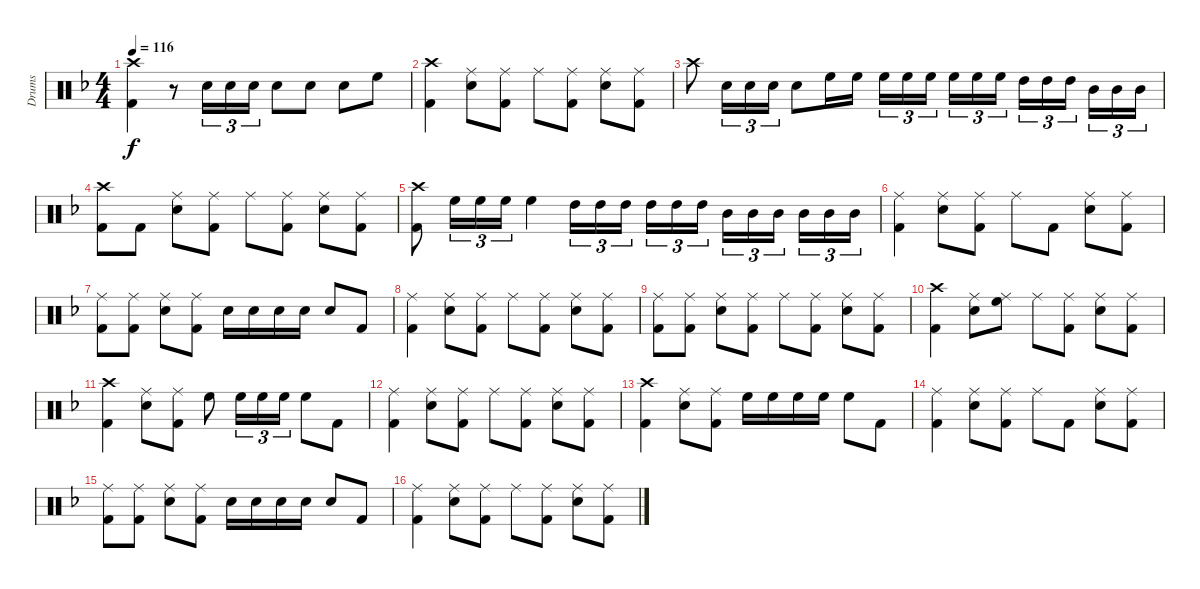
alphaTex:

\track ("Drums" "Drums") {instrument percussion}
\staff {score}
\articulation defaults
\ts (4 4)
\tempo 116
\clef neutral
\ks dminor
("Crash high (hit)" "Kick (hit) 2").4{dy f} r.8 "Electric Snare (hit)".16{tu (3 2)} "Electric Snare (hit)".16{tu (3 2)} "Electric Snare (hit)".16{tu (3 2)} "Electric Snare (hit)".8 "Electric Snare (hit)".8 "Electric Snare (hit)".8 "High Floor Tom (hit)".8 |
("Crash high (hit)" "Kick (hit) 2").4 ("Ride (middle)" "Electric Snare (hit)").8 ("Ride (middle)" "Kick (hit) 2").8 "Ride (middle)".8 ("Ride (middle)" "Kick (hit) 2").8 ("Ride (middle)" "Electric Snare (hit)").8 ("Ride (middle)" "Kick (hit) 2").8 |
"Crash high (hit)".8 "Electric Snare (hit)".16{tu (3 2)} "Electric Snare (hit)".16{tu (3 2)} "Electric Snare (hit)".16{tu (3 2)} "Electric Snare (hit)".8 "High Floor Tom (hit)".16 "High Floor Tom (hit)".16 "High Floor Tom (hit)".16{tu (3 2)} "High Floor Tom (hit)".16{tu (3 2)} "High Floor Tom (hit)".16{tu (3 2)} "High Floor Tom (hit)".16{tu (3 2)} "High Floor Tom (hit)".16{tu (3 2)} "High Floor Tom (hit)".16{tu (3 2)} "High Tom (hit)".16{tu (3 2)} "High Tom (hit)".16{tu (3 2)} "High Tom (hit)".16{tu (3 2)} "Mid Tom (hit)".16{tu (3 2)} "Mid Tom (hit)".16{tu (3 2)} "Mid Tom (hit)".16{tu (3 2)} |
("Crash high (hit)" "Kick (hit) 2").8 "Kick (hit) 2".8 ("Ride (middle)" "Electric Snare (hit)").8 ("Ride (middle)" "Kick (hit) 2").8 "Ride (middle)".8 ("Ride (middle)" "Kick (hit) 2").8 ("Ride (middle)" "Electric Snare (hit)").8 ("Ride (middle)" "Kick (hit) 2").8 |
("Crash high (hit)" "Kick (hit) 2").8 "High Floor Tom (hit)".16{tu (3 2)} "High Floor Tom (hit)".16{tu (3 2)} "High Floor Tom (hit)".16{tu (3 2)} "High Floor Tom (hit)".4 "High Tom (hit)".16{tu (3 2)} "High Tom (hit)".16{tu (3 2)} "High Tom (hit)".16{tu (3 2)} "High Tom (hit)".16{tu (3 2)} "High Tom (hit)".16{tu (3 2)} "High Tom (hit)".16{tu (3 2)} "Mid Tom (hit)".16{tu (3 2)} "Mid Tom (hit)".16{tu (3 2)} "Mid Tom (hit)".16{tu (3 2)} "Mid Tom (hit)".16{tu (3 2)} "Mid Tom (hit)".16{tu (3 2)} "Mid Tom (hit)".16{tu (3 2)} |
("Ride (middle)" "Kick (hit) 2").4 ("Ride (middle)" "Electric Snare (hit)").8 ("Ride (middle)" "Kick (hit) 2").8 "Ride (middle)".8 "Kick (hit) 2".8 ("Ride (middle)" "Electric Snare (hit)").8 ("Ride (middle)" "Kick (hit) 2").8 |
("Ride (middle)" "Kick (hit) 2").8 ("Ride (middle)" "Kick (hit) 2").8 ("Ride (middle)" "Electric Snare (hit)").8 ("Ride (middle)" "Kick (hit) 2").8 "Electric Snare (hit)".16 "Electric Snare (hit)".16 "Electric Snare (hit)".16 "Electric Snare (hit)".16 "Electric Snare (hit)".8 "Kick (hit) 2".8 |
("Ride (middle)" "Kick (hit) 2").4 ("Ride (middle)" "Electric Snare (hit)").8 ("Ride (middle)" "Kick (hit) 2").8 "Ride (middle)".8 ("Ride (middle)" "Kick (hit) 2").8 ("Ride (middle)" "Electric Snare (hit)").8 ("Ride (middle)" "Kick (hit) 2").8 |
("Ride (middle)" "Kick (hit) 2").8 ("Ride (middle)" "Kick (hit) 2").8 ("Ride (middle)" "Electric Snare (hit)").8 ("Ride (middle)" "Kick (hit) 2").8 "Ride (middle)".8 ("Ride (middle)" "Kick (hit) 2").8 ("Ride (middle)" "Electric Snare (hit)").8 ("Ride (middle)" "Kick (hit) 2").8 |
("Crash high (hit)" "Kick (hit) 2").4 ("Ride (middle)" "Electric Snare (hit)").8 ("Ride (middle)" "High Floor Tom (hit)").8 "Ride (middle)".8 ("Ride (middle)" "Kick (hit) 2").8 ("Ride (middle)" "Electric Snare (hit)").8 ("Ride (middle)" "Kick (hit) 2").8 |
("Crash high (hit)" "Kick (hit) 2").4 ("Ride (middle)" "Electric Snare (hit)").8 ("Ride (middle)" "Kick (hit) 2").8 "High Floor Tom (hit)".8 "High Floor Tom (hit)".16{tu (3 2)} "High Floor Tom (hit)".16{tu (3 2)} "High Floor Tom (hit)".16{tu (3 2)} "High Floor Tom (hit)".8 "Kick (hit) 2".8 |
("Ride (middle)" "Kick (hit) 2").4 ("Ride (middle)" "Electric Snare (hit)").8 ("Ride (middle)" "Kick (hit) 2").8 "Ride (middle)".8 ("Ride (middle)" "Kick (hit) 2").8 ("Ride (middle)" "Electric Snare (hit)").8 ("Ride (middle)" "Kick (hit) 2").8 |
("Crash high (hit)" "Kick (hit) 2").4 ("Ride (middle)" "Electric Snare (hit)").8 ("Ride (middle)" "Kick (hit) 2").8 "High Floor Tom (hit)".16 "High Floor Tom (hit)".16 "High Floor Tom (hit)".16 "High Floor Tom (hit)".16 "High Floor Tom (hit)".8 "Kick (hit) 2".8 |
("Ride (middle)" "Kick (hit) 2").4 ("Ride (middle)" "Electric Snare (hit)").8 ("Ride (middle)" "Kick (hit) 2").8 "Ride (middle)".8 "Kick (hit) 2".8 ("Ride (middle)" "Electric Snare (hit)").8 ("Ride (middle)" "Kick (hit) 2").8 |
("Ride (middle)" "Kick (hit) 2").8 ("Ride (middle)" "Kick (hit) 2").8 ("Ride (middle)" "Electric Snare (hit)").8 ("Ride (middle)" "Kick (hit) 2").8 "Electric Snare (hit)".16 "Electric Snare (hit)".16 "Electric Snare (hit)".16 "Electric Snare (hit)".16 "Electric Snare (hit)".8 "Kick (hit) 2".8 |
("Ride (middle)" "Kick (hit) 2").4 ("Ride (middle)" "Electric Snare (hit)").8 ("Ride (middle)" "Kick (hit) 2").8 "Ride (middle)".8 ("Ride (middle)" "Kick (hit) 2").8 ("Ride (middle)" "Electric Snare (hit)").8 ("Ride (middle)" "Kick (hit) 2").8
